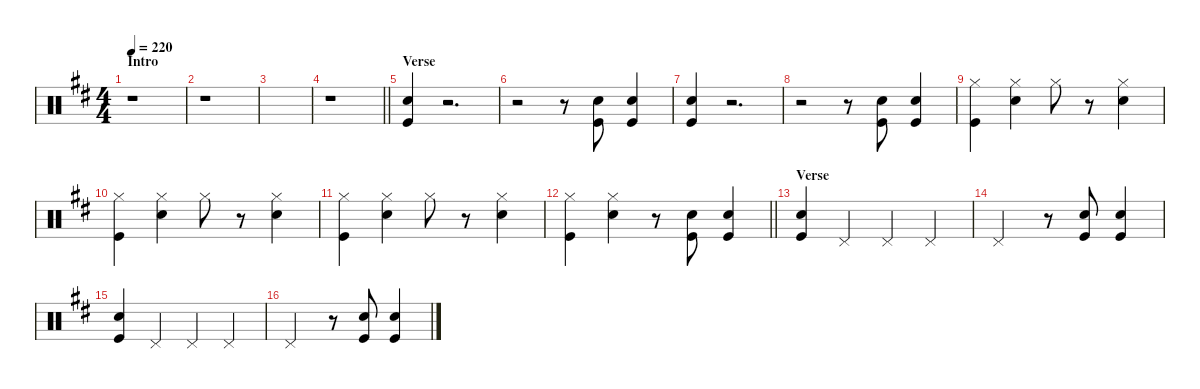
\defaultSystemsLayout 4
\hideDynamics
\bracketExtendMode nobrackets
\singleTrackTrackNamePolicy hidden
\multiTrackTrackNamePolicy hidden
\otherSystemsTrackNameOrientation horizontal
\track ("Charlie Watts" "drm.") {defaultSystemsLayout 8 instrument percussion}
\staff {score}
\articulation defaults
\ts (4 4)
\beaming (8 2 2 2 2)
\section ("" "Intro")
\tempo 220
\clef neutral
\ks bminor
r.1{dy ff beam Down} |
r.1{beam Down} |
|
\barLineRight lightlight
r.1{beam Down} |
\section ("" "Verse")
("Snare (hit) 2"{acc forcenatural} "Kick (hit)"{acc forcenatural}).4{beam Up} r.2{d beam Up} |
r.2{beam Down} r.8{beam Down} ("Snare (hit) 2"{acc forcenatural} "Kick (hit)"{acc forcenatural}).8{beam Up} ("Snare (hit) 2"{acc forcenatural} "Kick (hit)"{acc forcenatural}).4{beam Up} |
("Snare (hit) 2"{acc forcenatural} "Kick (hit)"{acc forcenatural}).4{beam Up} r.2{d beam Up} |
r.2{beam Down} r.8{beam Down} ("Snare (hit) 2"{acc forcenatural} "Kick (hit)"{acc forcenatural}).8{beam Up} ("Snare (hit) 2"{acc forcenatural} "Kick (hit)"{acc forcenatural}).4{beam Up} |
("Hi-Hat (closed)"{acc forcenatural} "Kick (hit)"{acc forcenatural}).4{beam Down} ("Hi-Hat (closed)"{acc forcenatural} "Snare (hit) 2"{acc forcenatural}).4{beam Down} "Hi-Hat (closed)"{acc forcenatural}.8{beam Down} r.8{beam Down} ("Hi-Hat (closed)"{acc forcenatural} "Snare (hit) 2"{acc forcenatural}).4{beam Down} |
("Hi-Hat (closed)"{acc forcenatural} "Kick (hit)"{acc forcenatural}).4{beam Down} ("Hi-Hat (closed)"{acc forcenatural} "Snare (hit) 2"{acc forcenatural}).4{beam Down} "Hi-Hat (closed)"{acc forcenatural}.8{beam Down} r.8{beam Down} ("Hi-Hat (closed)"{acc forcenatural} "Snare (hit) 2"{acc forcenatural}).4{beam Down} |
("Hi-Hat (closed)"{acc forcenatural} "Kick (hit)"{acc forcenatural}).4{beam Down} ("Hi-Hat (closed)"{acc forcenatural} "Snare (hit) 2"{acc forcenatural}).4{beam Down} "Hi-Hat (closed)"{acc forcenatural}.8{beam Down} r.8{beam Down} ("Hi-Hat (closed)"{acc forcenatural} "Snare (hit) 2"{acc forcenatural}).4{beam Down} |
\barLineRight lightlight
("Hi-Hat (closed)"{acc forcenatural} "Kick (hit)"{acc forcenatural}).4{beam Down} ("Hi-Hat (closed)"{acc forcenatural} "Snare (hit) 2"{acc forcenatural}).4{beam Down} r.8{beam Down} ("Snare (hit) 2"{acc forcenatural} "Kick (hit)"{acc forcenatural}).8{beam Up} ("Snare (hit) 2"{acc forcenatural} "Kick (hit)"{acc forcenatural}).4{beam Up} |
\section ("" "Verse")
("Snare (hit) 2"{acc forcenatural} "Kick (hit)"{acc forcenatural}).4{beam Up} "Pedal Hi-Hat (hit)"{acc forcenatural}.4{beam Up} "Pedal Hi-Hat (hit)"{acc forcenatural}.4{beam Up} "Pedal Hi-Hat (hit)"{acc forcenatural}.4{beam Up} |
"Pedal Hi-Hat (hit)"{acc forcenatural}.2{beam Up} r.8{beam Up} ("Snare (hit) 2"{acc forcenatural} "Kick (hit)"{acc forcenatural}).8{beam Up} ("Snare (hit) 2"{acc forcenatural} "Kick (hit)"{acc forcenatural}).4{beam Up} |
("Snare (hit) 2"{acc forcenatural} "Kick (hit)"{acc forcenatural}).4{beam Up} "Pedal Hi-Hat (hit)"{acc forcenatural}.4{beam Up} "Pedal Hi-Hat (hit)"{acc forcenatural}.4{beam Up} "Pedal Hi-Hat (hit)"{acc forcenatural}.4{beam Up} |
"Pedal Hi-Hat (hit)"{acc forcenatural}.2{beam Up} r.8{beam Up} ("Snare (hit) 2"{acc forcenatural} "Kick (hit)"{acc forcenatural}).8{beam Up} ("Snare (hit) 2"{acc forcenatural} "Kick (hit)"{acc forcenatural}).4{beam Up}
